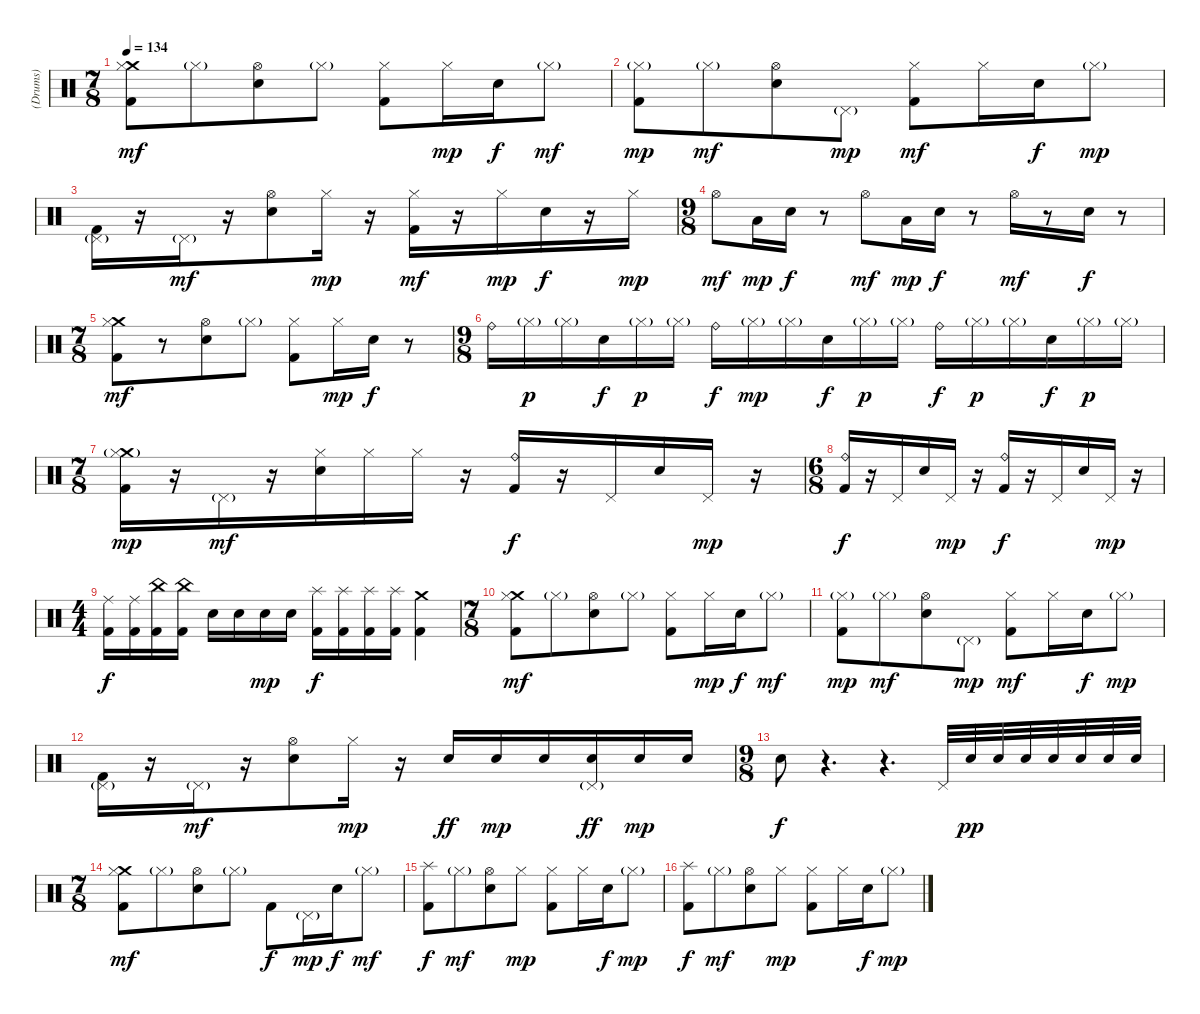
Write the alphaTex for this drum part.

\track ("(Drums)" "(Drums)") {instrument percussion}
\staff {score}
\articulation defaults
\ts (7 8)
\tempo 134
\clef neutral
\ks c
("Crash medium (hit)" "Hi-Hat (closed)" "Kick (hit) 2").8{dy mf} "Hi-Hat (closed)"{g}.8 ("Hi-Hat (open)" "Electric Snare (hit)").8 "Hi-Hat (closed)"{g}.8 ("Hi-Hat (closed)" "Kick (hit) 2").8 "Hi-Hat (closed)".16{dy mp} "Electric Snare (hit)".16{dy f} "Hi-Hat (closed)"{g}.8{dy mf} |
("Hi-Hat (closed)"{g} "Kick (hit) 2").8{dy mp} "Hi-Hat (closed)"{g}.8{dy mf} ("Hi-Hat (open)" "Electric Snare (hit)").8 "Pedal Hi-Hat (hit)"{g}.8{dy mp} ("Hi-Hat (closed)" "Kick (hit) 2").8{dy mf} "Hi-Hat (closed)".16 "Electric Snare (hit)".16{dy f} "Hi-Hat (closed)"{g}.8{dy mp} |
("Pedal Hi-Hat (hit)"{g} "Kick (hit) 2").16 r.16 "Pedal Hi-Hat (hit)"{g}.16{dy mf} r.16 ("Hi-Hat (open)" "Electric Snare (hit)").8 "Hi-Hat (closed)".16{dy mp} r.16 ("Hi-Hat (closed)" "Kick (hit) 2").16{dy mf} r.16 "Hi-Hat (closed)".16{dy mp} "Electric Snare (hit)".16{dy f} r.16 "Hi-Hat (closed)".16{dy mp} |
\ts (9 8)
"Hi-Hat (open)".8{dy mf} "Low Tom (hit)".16{dy mp} "Electric Snare (hit)".16{dy f} r.8 "Hi-Hat (open)".8{dy mf} "Low Tom (hit)".16{dy mp} "Electric Snare (hit)".16{dy f} r.8 "Hi-Hat (open)".16{dy mf} r.8 "Electric Snare (hit)".16{dy f} r.8 |
\ts (7 8)
("Crash medium (hit)" "Hi-Hat (closed)" "Kick (hit) 2").8{dy mf} r.8 ("Hi-Hat (open)" "Electric Snare (hit)").8 "Hi-Hat (closed)"{g}.8 ("Hi-Hat (closed)" "Kick (hit) 2").8 "Hi-Hat (closed)".16{dy mp} "Electric Snare (hit)".16{dy f} r.8 |
\ts (9 8)
"Ride (bell)".16 "Hi-Hat (closed)"{g}.16{dy p} "Hi-Hat (closed)"{g}.16 "Electric Snare (hit)".16{dy f} "Hi-Hat (closed)"{g}.16{dy p} "Hi-Hat (closed)"{g}.16 "Ride (bell)".16{dy f} "Hi-Hat (closed)"{g}.16{dy mp} "Hi-Hat (closed)"{g}.16 "Electric Snare (hit)".16{dy f} "Hi-Hat (closed)"{g}.16{dy p} "Hi-Hat (closed)"{g}.16 "Ride (bell)".16{dy f} "Hi-Hat (closed)"{g}.16{dy p} "Hi-Hat (closed)"{g}.16 "Electric Snare (hit)".16{dy f} "Hi-Hat (closed)"{g}.16{dy p} "Hi-Hat (closed)"{g}.16 |
\ts (7 8)
("Crash medium (hit)" "Hi-Hat (closed)"{g} "Kick (hit) 2").16{dy mp} r.16 "Pedal Hi-Hat (hit)"{g}.16{dy mf} r.16 ("Hi-Hat (closed)" "Electric Snare (hit)").16 "Hi-Hat (closed)".16 "Hi-Hat (closed)".16 r.16 ("Ride (bell)" "Kick (hit) 2").16{dy f} r.16 "Pedal Hi-Hat (hit)".16 "Electric Snare (hit)".16 "Pedal Hi-Hat (hit)".16{dy mp} r.16 |
\ts (6 8)
("Ride (bell)" "Kick (hit) 2").16{dy f} r.16 "Pedal Hi-Hat (hit)".16 "Electric Snare (hit)".16 "Pedal Hi-Hat (hit)".16{dy mp} r.16 ("Ride (bell)" "Kick (hit) 2").16{dy f} r.16 "Pedal Hi-Hat (hit)".16 "Electric Snare (hit)".16 "Pedal Hi-Hat (hit)".16{dy mp} r.16 |
\ts (4 4)
("Ride (middle)" "Kick (hit) 2").16{dy f} ("Ride (middle)" "Kick (hit) 2").16 ("China (hit)" "Kick (hit) 2").16 ("China (hit)" "Kick (hit) 2").16 "Electric Snare (hit)".16 "Electric Snare (hit)".16 "Electric Snare (hit)".16{dy mp} "Electric Snare (hit)".16 ("Splash (hit)" "Kick (hit) 2").16{dy f} ("Splash (hit)" "Kick (hit) 2").16 ("Splash (hit)" "Kick (hit) 2").16 ("Splash (hit)" "Kick (hit) 2").16 ("Crash medium (hit)" "Kick (hit) 2").4 |
\ts (7 8)
("Crash medium (hit)" "Hi-Hat (closed)" "Kick (hit) 2").8{dy mf} "Hi-Hat (closed)"{g}.8 ("Hi-Hat (open)" "Electric Snare (hit)").8 "Hi-Hat (closed)"{g}.8 ("Hi-Hat (closed)" "Kick (hit) 2").8 "Hi-Hat (closed)".16{dy mp} "Electric Snare (hit)".16{dy f} "Hi-Hat (closed)"{g}.8{dy mf} |
("Hi-Hat (closed)"{g} "Kick (hit) 2").8{dy mp} "Hi-Hat (closed)"{g}.8{dy mf} ("Hi-Hat (open)" "Electric Snare (hit)").8 "Pedal Hi-Hat (hit)"{g}.8{dy mp} ("Hi-Hat (closed)" "Kick (hit) 2").8{dy mf} "Hi-Hat (closed)".16 "Electric Snare (hit)".16{dy f} "Hi-Hat (closed)"{g}.8{dy mp} |
("Pedal Hi-Hat (hit)"{g} "Kick (hit) 2").16 r.16 "Pedal Hi-Hat (hit)"{g}.16{dy mf} r.16 ("Hi-Hat (open)" "Electric Snare (hit)").8 "Hi-Hat (closed)".16{dy mp} r.16 "Electric Snare (hit)".16{dy ff} "Electric Snare (hit)".16{dy mp} "Electric Snare (hit)".16 ("Pedal Hi-Hat (hit)"{g} "Electric Snare (hit)").16{dy ff} "Electric Snare (hit)".16{dy mp} "Electric Snare (hit)".16 |
\ts (9 8)
"Electric Snare (hit)".8{dy f} r.4{d} r.4{d} "Pedal Hi-Hat (hit)".32 "Electric Snare (hit)".32{dy pp} "Electric Snare (hit)".32 "Electric Snare (hit)".32 "Electric Snare (hit)".32 "Electric Snare (hit)".32 "Electric Snare (hit)".32 "Electric Snare (hit)".32 |
\ts (7 8)
("Crash medium (hit)" "Hi-Hat (closed)" "Kick (hit) 2").8{dy mf} "Hi-Hat (closed)"{g}.8 ("Hi-Hat (open)" "Electric Snare (hit)").8 "Hi-Hat (closed)"{g}.8 "Kick (hit) 2".8{dy f} "Pedal Hi-Hat (hit)"{g}.16{dy mp} "Electric Snare (hit)".16{dy f} "Hi-Hat (closed)"{g}.8{dy mf} |
("Splash (hit)" "Kick (hit) 2").8{dy f} "Hi-Hat (closed)"{g}.8{dy mf} ("Hi-Hat (open)" "Electric Snare (hit)").8 "Hi-Hat (closed)".8{dy mp} ("Hi-Hat (closed)" "Kick (hit) 2").8 "Hi-Hat (closed)".16 "Electric Snare (hit)".16{dy f} "Hi-Hat (closed)"{g}.8{dy mp} |
("Splash (hit)" "Kick (hit) 2").8{dy f} "Hi-Hat (closed)"{g}.8{dy mf} ("Hi-Hat (open)" "Electric Snare (hit)").8 "Hi-Hat (closed)".8{dy mp} ("Hi-Hat (closed)" "Kick (hit) 2").8 "Hi-Hat (closed)".16 "Electric Snare (hit)".16{dy f} "Hi-Hat (closed)"{g}.8{dy mp}
